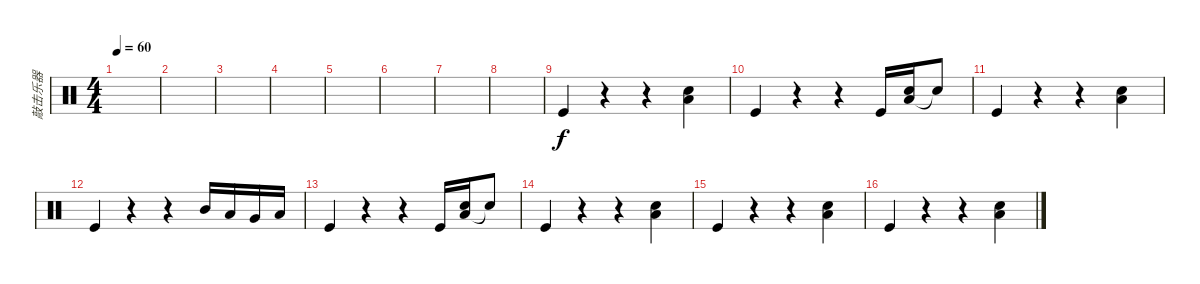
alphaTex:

\track ("敲击乐器" "敲击乐器") {instrument percussion}
\staff {score}
\articulation defaults
\ts (4 4)
\tempo 60
\clef neutral
\ks c
|
|
|
|
|
|
|
|
"Kick (hit)".4 r.4 r.4 ("Low Tom (hit)" "Snare (hit) 2").4 |
"Kick (hit)".4 r.4 r.4 "Kick (hit)".16 ("Low Tom (hit)" "Snare (hit) 2").16 "Snare (hit)"{t}.8 |
"Kick (hit)".4 r.4 r.4 ("Low Tom (hit)" "Snare (hit) 2").4 |
"Kick (hit)".4 r.4 r.4 "Mid Tom (hit)".16 "Low Tom (hit)".16 "Very Low Tom (hit)".16 "Low Floor Tom (hit)".16 |
"Kick (hit)".4 r.4 r.4 "Kick (hit)".16 ("Low Tom (hit)" "Snare (hit) 2").16 "Snare (hit)"{t}.8 |
"Kick (hit)".4 r.4 r.4 ("Low Tom (hit)" "Snare (hit) 2").4 |
"Kick (hit)".4 r.4 r.4 ("Low Tom (hit)" "Snare (hit) 2").4 |
"Kick (hit)".4 r.4 r.4 ("Low Tom (hit)" "Snare (hit) 2").4
